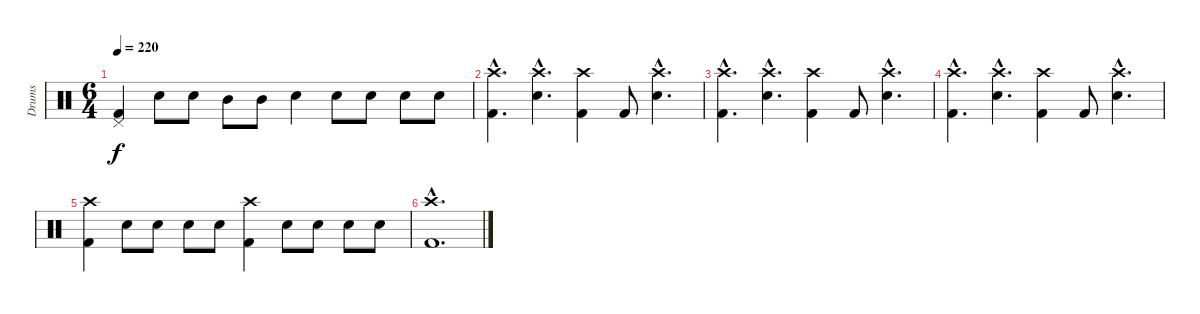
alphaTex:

\track ("Drums" "Drums") {instrument percussion}
\staff {score}
\articulation defaults
\ts (6 4)
\tempo 220
\clef neutral
\ks c
("Pedal Hi-Hat (hit)" "Kick (hit) 2").4{dy f} "Snare (hit) 2".8 "Snare (hit) 2".8 "Mid Tom (hit)".8 "Mid Tom (hit)".8 "Snare (hit) 2".4 "Snare (hit) 2".8 "Snare (hit) 2".8 "Snare (hit) 2".8 "Snare (hit) 2".8 |
("Crash high (hit)"{hac} "Kick (hit) 2"{hac}).4{d} ("Crash high (hit)"{hac} "Snare (hit) 2"{hac}).4{d} ("Crash high (hit)" "Kick (hit) 2").4 "Kick (hit) 2".8 ("Crash high (hit)"{hac} "Snare (hit) 2"{hac}).4{d} |
("Crash high (hit)"{hac} "Kick (hit) 2"{hac}).4{d} ("Crash high (hit)"{hac} "Snare (hit) 2"{hac}).4{d} ("Crash high (hit)" "Kick (hit) 2").4 "Kick (hit) 2".8 ("Crash high (hit)"{hac} "Snare (hit) 2"{hac}).4{d} |
("Crash high (hit)"{hac} "Kick (hit) 2"{hac}).4{d} ("Crash high (hit)"{hac} "Snare (hit) 2"{hac}).4{d} ("Crash high (hit)" "Kick (hit) 2").4 "Kick (hit) 2".8 ("Crash high (hit)"{hac} "Snare (hit) 2"{hac}).4{d} |
("Crash high (hit)" "Kick (hit) 2").4 "Snare (hit) 2".8 "Snare (hit) 2".8 "Snare (hit) 2".8 "Snare (hit) 2".8 ("Crash high (hit)" "Kick (hit) 2").4 "Snare (hit) 2".8 "Snare (hit) 2".8 "Snare (hit) 2".8 "Snare (hit) 2".8 |
("Crash high (hit)"{hac} "Kick (hit) 2"{hac}).1{d}
